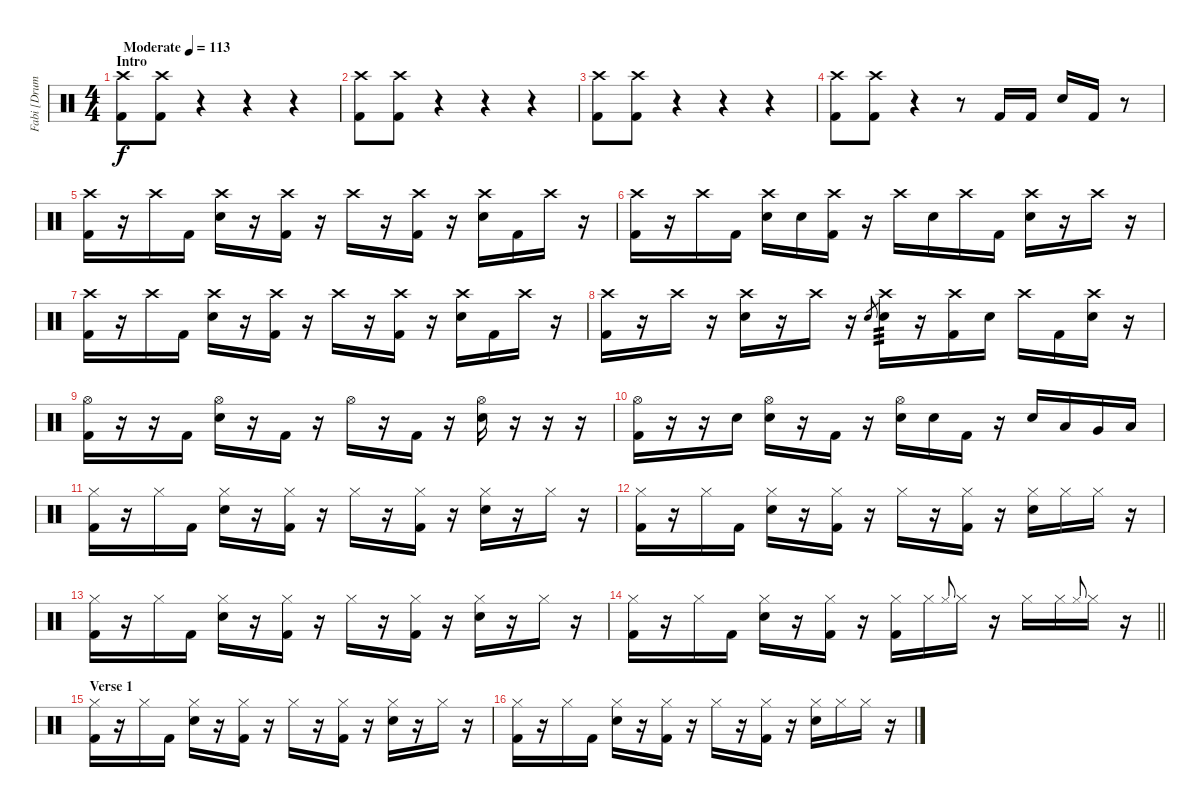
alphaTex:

\track ("Fabi [Drums]" "Fabi [Drum") {instrument percussion}
\staff {score}
\articulation defaults
\ts (4 4)
\section ("" "Intro")
\tempo (113 "Moderate")
\clef neutral
\ks c
("Crash high (hit)" "Kick (hit) 2").8{dy f} ("Crash high (hit)" "Kick (hit) 2").8 r.4 r.4 r.4 |
("Crash high (hit)" "Kick (hit) 2").8 ("Crash high (hit)" "Kick (hit) 2").8 r.4 r.4 r.4 |
("Crash high (hit)" "Kick (hit) 2").8 ("Crash high (hit)" "Kick (hit) 2").8 r.4 r.4 r.4 |
("Crash high (hit)" "Kick (hit) 2").8 ("Crash high (hit)" "Kick (hit) 2").8 r.4 r.8 "Kick (hit) 2".16 "Kick (hit) 2".16 "Electric Snare (hit)".16 "Kick (hit) 2".16 r.8 |
("Crash high (hit)" "Kick (hit) 2").16 r.16 "Crash high (hit)".16 "Kick (hit) 2".16 ("Crash high (hit)" "Electric Snare (hit)").16 r.16 ("Crash high (hit)" "Kick (hit) 2").16 r.16 "Crash high (hit)".16 r.16 ("Crash high (hit)" "Kick (hit) 2").16 r.16 ("Crash high (hit)" "Electric Snare (hit)").16 "Kick (hit) 2".16 "Crash high (hit)".16 r.16 |
("Crash high (hit)" "Kick (hit) 2").16 r.16 "Crash high (hit)".16 "Kick (hit) 2".16 ("Crash high (hit)" "Electric Snare (hit)").16 "Electric Snare (hit)".16 ("Crash high (hit)" "Kick (hit) 2").16 r.16 "Crash high (hit)".16 "Electric Snare (hit)".16 "Crash high (hit)".16 "Kick (hit) 2".16 ("Crash high (hit)" "Electric Snare (hit)").16 r.16 "Crash high (hit)".16 r.16 |
("Crash high (hit)" "Kick (hit) 2").16 r.16 "Crash high (hit)".16 "Kick (hit) 2".16 ("Crash high (hit)" "Electric Snare (hit)").16 r.16 ("Crash high (hit)" "Kick (hit) 2").16 r.16 "Crash high (hit)".16 r.16 ("Crash high (hit)" "Kick (hit) 2").16 r.16 ("Crash high (hit)" "Electric Snare (hit)").16 "Kick (hit) 2".16 "Crash high (hit)".16 r.16 |
("Crash high (hit)" "Kick (hit) 2").16 r.16 "Crash high (hit)".16 r.16 ("Crash high (hit)" "Electric Snare (hit)").16 r.16 "Crash high (hit)".16 r.16 "Electric Snare (hit)".8{gr} ("Crash high (hit)" "Electric Snare (hit)").16{tp 3} r.16 ("Crash high (hit)" "Kick (hit) 2").16 "Electric Snare (hit)".16 "Crash high (hit)".16 "Kick (hit) 2".16 ("Crash high (hit)" "Electric Snare (hit)").16 r.16 |
("Hi-Hat (open)" "Kick (hit) 2").16 r.16 r.16 "Kick (hit) 2".16 ("Hi-Hat (open)" "Electric Snare (hit)").16 r.16 "Kick (hit) 2".16 r.16 "Hi-Hat (open)".16 r.16 "Kick (hit) 2".16 r.16 ("Hi-Hat (open)" "Electric Snare (hit)").16 r.16 r.16 r.16 |
("Hi-Hat (open)" "Kick (hit) 2").16 r.16 r.16 "Electric Snare (hit)".16 ("Hi-Hat (open)" "Electric Snare (hit)").16 r.16 "Kick (hit) 2".16 r.16 ("Hi-Hat (open)" "Electric Snare (hit)").16 "Electric Snare (hit)".16 "Kick (hit) 2".16 r.16 "Electric Snare (hit)".16 "Low Tom (hit)".16 "Very Low Tom (hit)".16 "Low Floor Tom (hit)".16 |
("Hi-Hat (closed)" "Kick (hit) 2").16 r.16 "Hi-Hat (closed)".16 "Kick (hit) 2".16 ("Hi-Hat (closed)" "Electric Snare (hit)").16 r.16 ("Hi-Hat (closed)" "Kick (hit) 2").16 r.16 "Hi-Hat (closed)".16 r.16 ("Hi-Hat (closed)" "Kick (hit) 2").16 r.16 ("Hi-Hat (closed)" "Electric Snare (hit)").16 r.16 "Hi-Hat (closed)".16 r.16 |
("Hi-Hat (closed)" "Kick (hit) 2").16 r.16 "Hi-Hat (closed)".16 "Kick (hit) 2".16 ("Hi-Hat (closed)" "Electric Snare (hit)").16 r.16 ("Hi-Hat (closed)" "Kick (hit) 2").16 r.16 "Hi-Hat (closed)".16 r.16 ("Hi-Hat (closed)" "Kick (hit) 2").16 r.16 ("Hi-Hat (closed)" "Electric Snare (hit)").16 "Hi-Hat (closed)".16 "Hi-Hat (closed)".16 r.16 |
("Hi-Hat (closed)" "Kick (hit) 2").16 r.16 "Hi-Hat (closed)".16 "Kick (hit) 2".16 ("Hi-Hat (closed)" "Electric Snare (hit)").16 r.16 ("Hi-Hat (closed)" "Kick (hit) 2").16 r.16 "Hi-Hat (closed)".16 r.16 ("Hi-Hat (closed)" "Kick (hit) 2").16 r.16 ("Hi-Hat (closed)" "Electric Snare (hit)").16 r.16 "Hi-Hat (closed)".16 r.16 |
\barLineRight lightlight
("Hi-Hat (closed)" "Kick (hit) 2").16 r.16 "Hi-Hat (closed)".16 "Kick (hit) 2".16 ("Hi-Hat (closed)" "Electric Snare (hit)").16 r.16 ("Hi-Hat (closed)" "Kick (hit) 2").16 r.16 ("Hi-Hat (closed)" "Kick (hit) 2").16 "Hi-Hat (closed)".16 "Hi-Hat (closed)".8{gr onbeat} "Hi-Hat (closed)".16 r.16 "Hi-Hat (closed)".16 "Hi-Hat (closed)".16 "Hi-Hat (closed)".8{gr onbeat} "Hi-Hat (closed)".16 r.16 |
\section ("" "Verse 1")
("Hi-Hat (closed)" "Kick (hit) 2").16 r.16 "Hi-Hat (closed)".16 "Kick (hit) 2".16 ("Hi-Hat (closed)" "Electric Snare (hit)").16 r.16 ("Hi-Hat (closed)" "Kick (hit) 2").16 r.16 "Hi-Hat (closed)".16 r.16 ("Hi-Hat (closed)" "Kick (hit) 2").16 r.16 ("Hi-Hat (closed)" "Electric Snare (hit)").16 r.16 "Hi-Hat (closed)".16 r.16 |
("Hi-Hat (closed)" "Kick (hit) 2").16 r.16 "Hi-Hat (closed)".16 "Kick (hit) 2".16 ("Hi-Hat (closed)" "Electric Snare (hit)").16 r.16 ("Hi-Hat (closed)" "Kick (hit) 2").16 r.16 "Hi-Hat (closed)".16 r.16 ("Hi-Hat (closed)" "Kick (hit) 2").16 r.16 ("Hi-Hat (closed)" "Electric Snare (hit)").16 "Hi-Hat (closed)".16 "Hi-Hat (closed)".16 r.16
